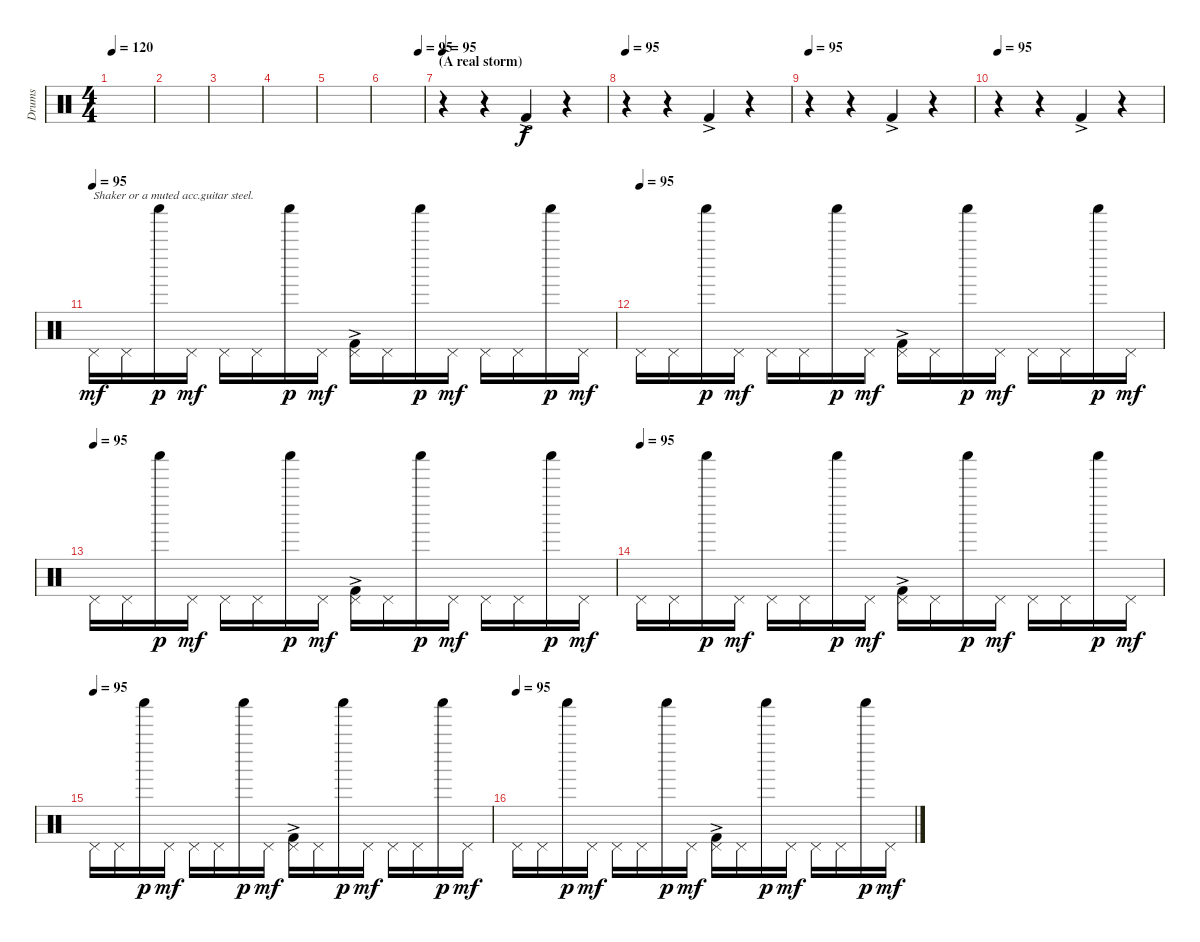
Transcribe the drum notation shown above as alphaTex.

\track ("Drums" "Drums") {instrument percussion}
\staff {score}
\articulation defaults
\ts (4 4)
\tempo 120
\clef neutral
\ks c
|
|
|
|
|
\tempo (95 0.875)
|
\section ("" "(A real storm)")
\tempo 95
r.4 r.4 "Kick (hit) 2"{ac}.4 r.4 |
\tempo 95
r.4 r.4 "Kick (hit) 2"{ac}.4 r.4 |
\tempo 95
r.4 r.4 "Kick (hit) 2"{ac}.4 r.4 |
\tempo 95
r.4 r.4 "Kick (hit) 2"{ac}.4 r.4 |
\tempo (95)
"Pedal Hi-Hat (hit)"{pm}.16{txt "Shaker or a muted acc.guitar steel." dy mf} "Pedal Hi-Hat (hit)"{pm}.16 "Shaker (hit)".16{dy p} "Pedal Hi-Hat (hit)"{pm}.16{dy mf} "Pedal Hi-Hat (hit)"{pm}.16 "Pedal Hi-Hat (hit)"{pm}.16 "Shaker (hit)".16{dy p} "Pedal Hi-Hat (hit)"{pm}.16{dy mf} ("Kick (hit) 2"{ac} "Pedal Hi-Hat (hit)").16 "Pedal Hi-Hat (hit)"{pm}.16 "Shaker (hit)".16{dy p} "Pedal Hi-Hat (hit)"{pm}.16{dy mf} "Pedal Hi-Hat (hit)"{pm}.16 "Pedal Hi-Hat (hit)"{pm}.16 "Shaker (hit)".16{dy p} "Pedal Hi-Hat (hit)"{pm}.16{dy mf} |
\tempo (95)
"Pedal Hi-Hat (hit)"{pm}.16 "Pedal Hi-Hat (hit)"{pm}.16 "Shaker (hit)".16{dy p} "Pedal Hi-Hat (hit)"{pm}.16{dy mf} "Pedal Hi-Hat (hit)"{pm}.16 "Pedal Hi-Hat (hit)"{pm}.16 "Shaker (hit)".16{dy p} "Pedal Hi-Hat (hit)"{pm}.16{dy mf} ("Kick (hit) 2"{ac} "Pedal Hi-Hat (hit)").16 "Pedal Hi-Hat (hit)"{pm}.16 "Shaker (hit)".16{dy p} "Pedal Hi-Hat (hit)"{pm}.16{dy mf} "Pedal Hi-Hat (hit)"{pm}.16 "Pedal Hi-Hat (hit)"{pm}.16 "Shaker (hit)".16{dy p} "Pedal Hi-Hat (hit)"{pm}.16{dy mf} |
\tempo (95)
"Pedal Hi-Hat (hit)"{pm}.16 "Pedal Hi-Hat (hit)"{pm}.16 "Shaker (hit)".16{dy p} "Pedal Hi-Hat (hit)"{pm}.16{dy mf} "Pedal Hi-Hat (hit)"{pm}.16 "Pedal Hi-Hat (hit)"{pm}.16 "Shaker (hit)".16{dy p} "Pedal Hi-Hat (hit)"{pm}.16{dy mf} ("Kick (hit) 2"{ac} "Pedal Hi-Hat (hit)").16 "Pedal Hi-Hat (hit)"{pm}.16 "Shaker (hit)".16{dy p} "Pedal Hi-Hat (hit)"{pm}.16{dy mf} "Pedal Hi-Hat (hit)"{pm}.16 "Pedal Hi-Hat (hit)"{pm}.16 "Shaker (hit)".16{dy p} "Pedal Hi-Hat (hit)"{pm}.16{dy mf} |
\tempo (95)
"Pedal Hi-Hat (hit)"{pm}.16 "Pedal Hi-Hat (hit)"{pm}.16 "Shaker (hit)".16{dy p} "Pedal Hi-Hat (hit)"{pm}.16{dy mf} "Pedal Hi-Hat (hit)"{pm}.16 "Pedal Hi-Hat (hit)"{pm}.16 "Shaker (hit)".16{dy p} "Pedal Hi-Hat (hit)"{pm}.16{dy mf} ("Kick (hit) 2"{ac} "Pedal Hi-Hat (hit)").16 "Pedal Hi-Hat (hit)"{pm}.16 "Shaker (hit)".16{dy p} "Pedal Hi-Hat (hit)"{pm}.16{dy mf} "Pedal Hi-Hat (hit)"{pm}.16 "Pedal Hi-Hat (hit)"{pm}.16 "Shaker (hit)".16{dy p} "Pedal Hi-Hat (hit)"{pm}.16{dy mf} |
\tempo (95)
"Pedal Hi-Hat (hit)"{pm}.16 "Pedal Hi-Hat (hit)"{pm}.16 "Shaker (hit)".16{dy p} "Pedal Hi-Hat (hit)"{pm}.16{dy mf} "Pedal Hi-Hat (hit)"{pm}.16 "Pedal Hi-Hat (hit)"{pm}.16 "Shaker (hit)".16{dy p} "Pedal Hi-Hat (hit)"{pm}.16{dy mf} ("Kick (hit) 2"{ac} "Pedal Hi-Hat (hit)").16 "Pedal Hi-Hat (hit)"{pm}.16 "Shaker (hit)".16{dy p} "Pedal Hi-Hat (hit)"{pm}.16{dy mf} "Pedal Hi-Hat (hit)"{pm}.16 "Pedal Hi-Hat (hit)"{pm}.16 "Shaker (hit)".16{dy p} "Pedal Hi-Hat (hit)"{pm}.16{dy mf} |
\tempo (95)
"Pedal Hi-Hat (hit)"{pm}.16 "Pedal Hi-Hat (hit)"{pm}.16 "Shaker (hit)".16{dy p} "Pedal Hi-Hat (hit)"{pm}.16{dy mf} "Pedal Hi-Hat (hit)"{pm}.16 "Pedal Hi-Hat (hit)"{pm}.16 "Shaker (hit)".16{dy p} "Pedal Hi-Hat (hit)"{pm}.16{dy mf} ("Kick (hit) 2"{ac} "Pedal Hi-Hat (hit)").16 "Pedal Hi-Hat (hit)"{pm}.16 "Shaker (hit)".16{dy p} "Pedal Hi-Hat (hit)"{pm}.16{dy mf} "Pedal Hi-Hat (hit)"{pm}.16 "Pedal Hi-Hat (hit)"{pm}.16 "Shaker (hit)".16{dy p} "Pedal Hi-Hat (hit)"{pm}.16{dy mf}
